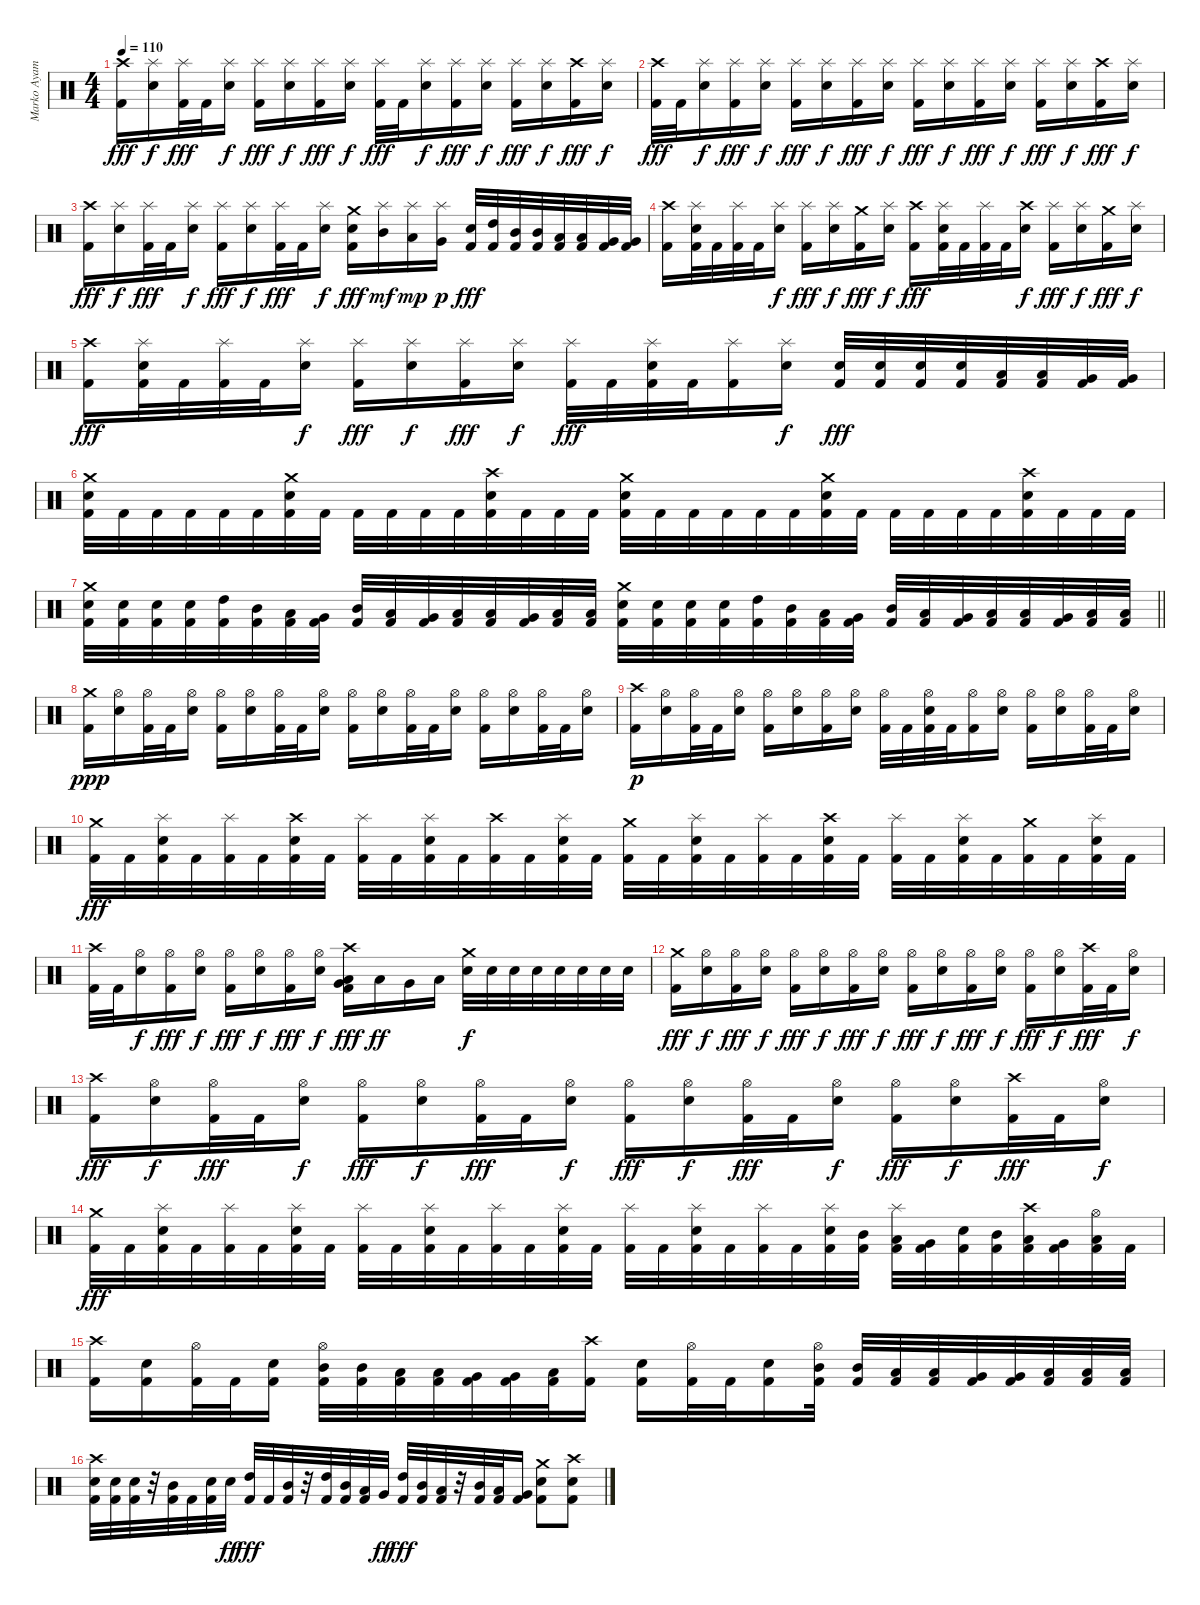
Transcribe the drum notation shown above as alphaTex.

\track ("Marko Ayamani" "Marko Ayam") {instrument percussion}
\staff {score}
\articulation defaults
\ts (4 4)
\tempo 110
\clef neutral
\ks c
("Crash high (hit)" "Kick (hit) 2").16{dy fff} ("Splash (hit)" "Snare (hit) 2").16{dy f} ("Splash (hit)" "Kick (hit) 2").32{dy fff} "Kick (hit) 2".32 ("Splash (hit)" "Snare (hit) 2").16{dy f} ("Splash (hit)" "Kick (hit) 2").16{dy fff} ("Splash (hit)" "Snare (hit) 2").16{dy f} ("Splash (hit)" "Kick (hit) 2").16{dy fff} ("Splash (hit)" "Snare (hit) 2").16{dy f} ("Splash (hit)" "Kick (hit) 2").32{dy fff} "Kick (hit) 2".32 ("Splash (hit)" "Snare (hit) 2").16{dy f} ("Splash (hit)" "Kick (hit) 2").16{dy fff} ("Splash (hit)" "Snare (hit) 2").16{dy f} ("Splash (hit)" "Kick (hit) 2").16{dy fff} ("Splash (hit)" "Snare (hit) 2").16{dy f} ("Crash high (hit)" "Kick (hit) 2").16{dy fff} ("Splash (hit)" "Snare (hit) 2").16{dy f} |
("Crash high (hit)" "Kick (hit) 2").32{dy fff} "Kick (hit) 2".32 ("Splash (hit)" "Snare (hit) 2").16{dy f} ("Splash (hit)" "Kick (hit) 2").16{dy fff} ("Splash (hit)" "Snare (hit) 2").16{dy f} ("Splash (hit)" "Kick (hit) 2").16{dy fff} ("Splash (hit)" "Snare (hit) 2").16{dy f} ("Splash (hit)" "Kick (hit) 2").16{dy fff} ("Splash (hit)" "Snare (hit) 2").16{dy f} ("Splash (hit)" "Kick (hit) 2").16{dy fff} ("Splash (hit)" "Snare (hit) 2").16{dy f} ("Splash (hit)" "Kick (hit) 2").16{dy fff} ("Splash (hit)" "Snare (hit) 2").16{dy f} ("Splash (hit)" "Kick (hit) 2").16{dy fff} ("Splash (hit)" "Snare (hit) 2").16{dy f} ("Crash high (hit)" "Kick (hit) 2").16{dy fff} ("Splash (hit)" "Snare (hit) 2").16{dy f} |
("Crash high (hit)" "Kick (hit) 2").16{dy fff} ("Splash (hit)" "Snare (hit) 2").16{dy f} ("Splash (hit)" "Kick (hit) 2").32{dy fff} "Kick (hit) 2".32 ("Splash (hit)" "Snare (hit) 2").16{dy f} ("Splash (hit)" "Kick (hit) 2").16{dy fff} ("Splash (hit)" "Snare (hit) 2").16{dy f} ("Splash (hit)" "Kick (hit) 2").32{dy fff} "Kick (hit) 2".32 ("Splash (hit)" "Snare (hit) 2").16{dy f} ("Crash medium (hit)" "Snare (hit) 2" "Kick (hit) 2").16{dy fff} ("Splash (hit)" "Mid Tom (hit)").16{dy mf} ("Splash (hit)" "Low Tom (hit)").16{dy mp} ("Splash (hit)" "Very Low Tom (hit)").16{dy p} ("Snare (hit) 2" "Kick (hit) 2").32{dy fff} ("High Tom (hit)" "Kick (hit) 2").32 ("Mid Tom (hit)" "Kick (hit) 2").32 ("Mid Tom (hit)" "Kick (hit) 2").32 ("Low Tom (hit)" "Kick (hit) 2").32 ("Low Tom (hit)" "Kick (hit) 2").32 ("Very Low Tom (hit)" "Kick (hit) 2").32 ("Very Low Tom (hit)" "Kick (hit) 2").32 |
("Crash high (hit)" "Kick (hit) 2").16 ("Splash (hit)" "Snare (hit) 2" "Kick (hit) 2").32 "Kick (hit) 2".32 ("Splash (hit)" "Kick (hit) 2").32 "Kick (hit) 2".32 ("Splash (hit)" "Snare (hit) 2").16{dy f} ("Splash (hit)" "Kick (hit) 2").16{dy fff} ("Splash (hit)" "Snare (hit) 2").16{dy f} ("Crash medium (hit)" "Kick (hit) 2").16{dy fff} ("Splash (hit)" "Snare (hit) 2").16{dy f} ("Crash high (hit)" "Kick (hit) 2").16{dy fff} ("Splash (hit)" "Snare (hit) 2" "Kick (hit) 2").32 "Kick (hit) 2".32 ("Splash (hit)" "Kick (hit) 2").32 "Kick (hit) 2".32 ("Crash high (hit)" "Snare (hit) 2").16{dy f} ("Splash (hit)" "Kick (hit) 2").16{dy fff} ("Splash (hit)" "Snare (hit) 2").16{dy f} ("Crash medium (hit)" "Kick (hit) 2").16{dy fff} ("Splash (hit)" "Snare (hit) 2").16{dy f} |
("Crash high (hit)" "Kick (hit) 2").16{dy fff} ("Splash (hit)" "Snare (hit) 2" "Kick (hit) 2").32 "Kick (hit) 2".32 ("Splash (hit)" "Kick (hit) 2").32 "Kick (hit) 2".32 ("Splash (hit)" "Snare (hit) 2").16{dy f} ("Splash (hit)" "Kick (hit) 2").16{dy fff} ("Splash (hit)" "Snare (hit) 2").16{dy f} ("Splash (hit)" "Kick (hit) 2").16{dy fff} ("Splash (hit)" "Snare (hit) 2").16{dy f} ("Splash (hit)" "Kick (hit) 2").32{dy fff} "Kick (hit) 2".32 ("Splash (hit)" "Snare (hit) 2" "Kick (hit) 2").32 "Kick (hit) 2".32 ("Splash (hit)" "Kick (hit) 2").16 ("Splash (hit)" "Snare (hit) 2").16{dy f} ("Snare (hit) 2" "Kick (hit) 2").32{dy fff} ("Snare (hit) 2" "Kick (hit) 2").32 ("Snare (hit) 2" "Kick (hit) 2").32 ("Snare (hit) 2" "Kick (hit) 2").32 ("Low Tom (hit)" "Kick (hit) 2").32 ("Low Tom (hit)" "Kick (hit) 2").32 ("Very Low Tom (hit)" "Kick (hit) 2").32 ("Very Low Tom (hit)" "Kick (hit) 2").32 |
("Crash medium (hit)" "Snare (hit) 2" "Kick (hit) 2").32 "Kick (hit) 2".32 "Kick (hit) 2".32 "Kick (hit) 2".32 "Kick (hit) 2".32 "Kick (hit) 2".32 ("Crash medium (hit)" "Snare (hit) 2" "Kick (hit) 2").32 "Kick (hit) 2".32 "Kick (hit) 2".32 "Kick (hit) 2".32 "Kick (hit) 2".32 "Kick (hit) 2".32 ("Crash high (hit)" "Snare (hit) 2" "Kick (hit) 2").32 "Kick (hit) 2".32 "Kick (hit) 2".32 "Kick (hit) 2".32 ("Crash medium (hit)" "Snare (hit) 2" "Kick (hit) 2").32 "Kick (hit) 2".32 "Kick (hit) 2".32 "Kick (hit) 2".32 "Kick (hit) 2".32 "Kick (hit) 2".32 ("Crash medium (hit)" "Snare (hit) 2" "Kick (hit) 2").32 "Kick (hit) 2".32 "Kick (hit) 2".32 "Kick (hit) 2".32 "Kick (hit) 2".32 "Kick (hit) 2".32 ("Crash high (hit)" "Snare (hit) 2" "Kick (hit) 2").32 "Kick (hit) 2".32 "Kick (hit) 2".32 "Kick (hit) 2".32 |
\barLineRight lightlight
("Crash medium (hit)" "Snare (hit) 2" "Kick (hit) 2").32 ("Snare (hit) 2" "Kick (hit) 2").32 ("Snare (hit) 2" "Kick (hit) 2").32 ("Snare (hit) 2" "Kick (hit) 2").32 ("High Tom (hit)" "Kick (hit) 2").32 ("Mid Tom (hit)" "Kick (hit) 2").32 ("Low Tom (hit)" "Kick (hit) 2").32 ("Very Low Tom (hit)" "Kick (hit) 2").32 ("Mid Tom (hit)" "Kick (hit) 2").32 ("Low Tom (hit)" "Kick (hit) 2").32 ("Very Low Tom (hit)" "Kick (hit) 2").32 ("Low Floor Tom (hit)" "Kick (hit) 2").32 ("Low Tom (hit)" "Kick (hit) 2").32 ("Very Low Tom (hit)" "Kick (hit) 2").32 ("Low Floor Tom (hit)" "Kick (hit) 2").32 ("Low Floor Tom (hit)" "Kick (hit) 2").32 ("Crash medium (hit)" "Snare (hit) 2" "Kick (hit) 2").32 ("Snare (hit) 2" "Kick (hit) 2").32 ("Snare (hit) 2" "Kick (hit) 2").32 ("Snare (hit) 2" "Kick (hit) 2").32 ("High Tom (hit)" "Kick (hit) 2").32 ("Mid Tom (hit)" "Kick (hit) 2").32 ("Low Tom (hit)" "Kick (hit) 2").32 ("Very Low Tom (hit)" "Kick (hit) 2").32 ("Mid Tom (hit)" "Kick (hit) 2").32 ("Low Tom (hit)" "Kick (hit) 2").32 ("Very Low Tom (hit)" "Kick (hit) 2").32 ("Low Floor Tom (hit)" "Kick (hit) 2").32 ("Low Tom (hit)" "Kick (hit) 2").32 ("Very Low Tom (hit)" "Kick (hit) 2").32 ("Low Floor Tom (hit)" "Kick (hit) 2").32 ("Low Floor Tom (hit)" "Kick (hit) 2").32 |
("Crash medium (hit)" "Kick (hit) 2").16{dy ppp} ("Hi-Hat (open)" "Snare (hit) 2").16 ("Hi-Hat (open)" "Kick (hit) 2").32 "Kick (hit) 2".32 ("Hi-Hat (open)" "Snare (hit) 2").16 ("Hi-Hat (open)" "Kick (hit) 2").16 ("Hi-Hat (open)" "Snare (hit) 2").16 ("Hi-Hat (open)" "Kick (hit) 2").32 "Kick (hit) 2".32 ("Hi-Hat (open)" "Snare (hit) 2").16 ("Hi-Hat (open)" "Kick (hit) 2").16 ("Hi-Hat (open)" "Snare (hit) 2").16 ("Hi-Hat (open)" "Kick (hit) 2").32 "Kick (hit) 2".32 ("Hi-Hat (open)" "Snare (hit) 2").16 ("Hi-Hat (open)" "Kick (hit) 2").16 ("Hi-Hat (open)" "Snare (hit) 2").16 ("Hi-Hat (open)" "Kick (hit) 2").32 "Kick (hit) 2".32 ("Hi-Hat (open)" "Snare (hit) 2").16 |
("Crash high (hit)" "Kick (hit) 2").16{dy p} ("Hi-Hat (open)" "Snare (hit) 2").16 ("Hi-Hat (open)" "Kick (hit) 2").32 "Kick (hit) 2".32 ("Hi-Hat (open)" "Snare (hit) 2").16 ("Hi-Hat (open)" "Kick (hit) 2").16 ("Hi-Hat (open)" "Snare (hit) 2").16 ("Hi-Hat (open)" "Kick (hit) 2").16 ("Hi-Hat (open)" "Snare (hit) 2").16 ("Hi-Hat (open)" "Kick (hit) 2").32 "Kick (hit) 2".32 ("Hi-Hat (open)" "Snare (hit) 2" "Kick (hit) 2").32 "Kick (hit) 2".32 ("Hi-Hat (open)" "Kick (hit) 2").16 ("Hi-Hat (open)" "Snare (hit) 2").16 ("Hi-Hat (open)" "Kick (hit) 2").16 ("Hi-Hat (open)" "Snare (hit) 2").16 ("Hi-Hat (open)" "Kick (hit) 2").32 "Kick (hit) 2".32 ("Hi-Hat (open)" "Snare (hit) 2").16 |
("Crash medium (hit)" "Kick (hit) 2").32{dy fff} "Kick (hit) 2".32 ("Splash (hit)" "Snare (hit) 2" "Kick (hit) 2").32 "Kick (hit) 2".32 ("Splash (hit)" "Kick (hit) 2").32 "Kick (hit) 2".32 ("Crash high (hit)" "Snare (hit) 2" "Kick (hit) 2").32 "Kick (hit) 2".32 ("Splash (hit)" "Kick (hit) 2").32 "Kick (hit) 2".32 ("Splash (hit)" "Snare (hit) 2" "Kick (hit) 2").32 "Kick (hit) 2".32 ("Crash high (hit)" "Kick (hit) 2").32 "Kick (hit) 2".32 ("Splash (hit)" "Snare (hit) 2" "Kick (hit) 2").32 "Kick (hit) 2".32 ("Crash medium (hit)" "Kick (hit) 2").32 "Kick (hit) 2".32 ("Splash (hit)" "Snare (hit) 2" "Kick (hit) 2").32 "Kick (hit) 2".32 ("Splash (hit)" "Kick (hit) 2").32 "Kick (hit) 2".32 ("Crash high (hit)" "Snare (hit) 2" "Kick (hit) 2").32 "Kick (hit) 2".32 ("Splash (hit)" "Kick (hit) 2").32 "Kick (hit) 2".32 ("Splash (hit)" "Snare (hit) 2" "Kick (hit) 2").32 "Kick (hit) 2".32 ("Crash medium (hit)" "Kick (hit) 2").32 "Kick (hit) 2".32 ("Splash (hit)" "Snare (hit) 2" "Kick (hit) 2").32 "Kick (hit) 2".32 |
("Crash high (hit)" "Kick (hit) 2").32 "Kick (hit) 2".32 ("Hi-Hat (open)" "Snare (hit) 2").16{dy f} ("Hi-Hat (open)" "Kick (hit) 2").16{dy fff} ("Hi-Hat (open)" "Snare (hit) 2").16{dy f} ("Hi-Hat (open)" "Kick (hit) 2").16{dy fff} ("Hi-Hat (open)" "Snare (hit) 2").16{dy f} ("Hi-Hat (open)" "Kick (hit) 2").16{dy fff} ("Hi-Hat (open)" "Snare (hit) 2").16{dy f} ("Crash high (hit)" "Very Low Tom (hit)" "Low Tom (hit)" "Kick (hit) 2").16{dy fff} "Low Tom (hit)".16{dy ff} "Very Low Tom (hit)".16 "Low Floor Tom (hit)".16 ("Crash medium (hit)" "Snare (hit) 2").32{dy f} "Snare (hit) 2".32 "Snare (hit) 2".32 "Snare (hit) 2".32 "Snare (hit) 2".32 "Snare (hit) 2".32 "Snare (hit) 2".32 "Snare (hit) 2".32 |
("Crash medium (hit)" "Kick (hit) 2").16{dy fff} ("Hi-Hat (open)" "Snare (hit) 2").16{dy f} ("Hi-Hat (open)" "Kick (hit) 2").16{dy fff} ("Hi-Hat (open)" "Snare (hit) 2").16{dy f} ("Hi-Hat (open)" "Kick (hit) 2").16{dy fff} ("Hi-Hat (open)" "Snare (hit) 2").16{dy f} ("Hi-Hat (open)" "Kick (hit) 2").16{dy fff} ("Hi-Hat (open)" "Snare (hit) 2").16{dy f} ("Hi-Hat (open)" "Kick (hit) 2").16{dy fff} ("Hi-Hat (open)" "Snare (hit) 2").16{dy f} ("Hi-Hat (open)" "Kick (hit) 2").16{dy fff} ("Hi-Hat (open)" "Snare (hit) 2").16{dy f} ("Hi-Hat (open)" "Kick (hit) 2").16{dy fff} ("Hi-Hat (open)" "Snare (hit) 2").16{dy f} ("Crash high (hit)" "Kick (hit) 2").32{dy fff} "Kick (hit) 2".32 ("Hi-Hat (open)" "Snare (hit) 2").16{dy f} |
("Crash high (hit)" "Kick (hit) 2").16{dy fff} ("Hi-Hat (open)" "Snare (hit) 2").16{dy f} ("Hi-Hat (open)" "Kick (hit) 2").32{dy fff} "Kick (hit) 2".32 ("Hi-Hat (open)" "Snare (hit) 2").16{dy f} ("Hi-Hat (open)" "Kick (hit) 2").16{dy fff} ("Hi-Hat (open)" "Snare (hit) 2").16{dy f} ("Hi-Hat (open)" "Kick (hit) 2").32{dy fff} "Kick (hit) 2".32 ("Hi-Hat (open)" "Snare (hit) 2").16{dy f} ("Hi-Hat (open)" "Kick (hit) 2").16{dy fff} ("Hi-Hat (open)" "Snare (hit) 2").16{dy f} ("Hi-Hat (open)" "Kick (hit) 2").32{dy fff} "Kick (hit) 2".32 ("Hi-Hat (open)" "Snare (hit) 2").16{dy f} ("Hi-Hat (open)" "Kick (hit) 2").16{dy fff} ("Hi-Hat (open)" "Snare (hit) 2").16{dy f} ("Crash high (hit)" "Kick (hit) 2").32{dy fff} "Kick (hit) 2".32 ("Hi-Hat (open)" "Snare (hit) 2").16{dy f} |
("Crash medium (hit)" "Kick (hit) 2").32{dy fff} "Kick (hit) 2".32 ("Splash (hit)" "Snare (hit) 2" "Kick (hit) 2").32 "Kick (hit) 2".32 ("Splash (hit)" "Kick (hit) 2").32 "Kick (hit) 2".32 ("Splash (hit)" "Snare (hit) 2" "Kick (hit) 2").32 "Kick (hit) 2".32 ("Splash (hit)" "Kick (hit) 2").32 "Kick (hit) 2".32 ("Splash (hit)" "Snare (hit) 2" "Kick (hit) 2").32 "Kick (hit) 2".32 ("Splash (hit)" "Kick (hit) 2").32 "Kick (hit) 2".32 ("Splash (hit)" "Snare (hit) 2" "Kick (hit) 2").32 "Kick (hit) 2".32 ("Splash (hit)" "Kick (hit) 2").32 "Kick (hit) 2".32 ("Splash (hit)" "Snare (hit) 2" "Kick (hit) 2").32 "Kick (hit) 2".32 ("Splash (hit)" "Kick (hit) 2").32 "Kick (hit) 2".32 ("Splash (hit)" "Snare (hit) 2" "Kick (hit) 2").32 ("Mid Tom (hit)" "Kick (hit) 2").32 ("Splash (hit)" "Low Tom (hit)" "Kick (hit) 2").32 ("Very Low Tom (hit)" "Kick (hit) 2").32 ("Snare (hit) 2" "Kick (hit) 2").32 ("Mid Tom (hit)" "Kick (hit) 2").32 ("Crash high (hit)" "Low Tom (hit)" "Kick (hit) 2").32 ("Very Low Tom (hit)" "Kick (hit) 2").32 ("Hi-Hat (open)" "Low Floor Tom (hit)" "Kick (hit) 2").32 "Kick (hit) 2".32 |
("Crash high (hit)" "Kick (hit) 2").16 ("Snare (hit) 2" "Kick (hit) 2").16 ("Hi-Hat (open)" "Kick (hit) 2").32 "Kick (hit) 2".32 ("Snare (hit) 2" "Kick (hit) 2").16 ("Hi-Hat (open)" "Mid Tom (hit)" "Kick (hit) 2").32 ("Mid Tom (hit)" "Kick (hit) 2").32 ("Low Tom (hit)" "Kick (hit) 2").32 ("Low Tom (hit)" "Kick (hit) 2").32 ("Very Low Tom (hit)" "Kick (hit) 2").32 ("Very Low Tom (hit)" "Kick (hit) 2").32 ("Low Floor Tom (hit)" "Kick (hit) 2").32 ("Crash high (hit)" "Kick (hit) 2").16 ("Snare (hit) 2" "Kick (hit) 2").16 ("Hi-Hat (open)" "Kick (hit) 2").32 "Kick (hit) 2".32 ("Snare (hit) 2" "Kick (hit) 2").16 ("Hi-Hat (open)" "Mid Tom (hit)" "Kick (hit) 2").32 ("Mid Tom (hit)" "Kick (hit) 2").32 ("Low Tom (hit)" "Kick (hit) 2").32 ("Low Tom (hit)" "Kick (hit) 2").32 ("Very Low Tom (hit)" "Kick (hit) 2").32 ("Very Low Tom (hit)" "Kick (hit) 2").32 ("Low Floor Tom (hit)" "Kick (hit) 2").32 ("Low Floor Tom (hit)" "Kick (hit) 2").32 ("Low Floor Tom (hit)" "Kick (hit) 2").32 |
("Crash high (hit)" "Snare (hit) 2" "Kick (hit) 2").32 ("Snare (hit) 2" "Kick (hit) 2").32 ("Snare (hit) 2" "Kick (hit) 2").32 r.32 ("Mid Tom (hit)" "Kick (hit) 2").32 "Kick (hit) 2".32 ("Snare (hit) 2" "Kick (hit) 2").32 "Snare (hit) 2".32{dy ff} ("High Tom (hit)" "Kick (hit) 2").32{dy fff} "Kick (hit) 2".32 ("Mid Tom (hit)" "Kick (hit) 2").32 r.32 ("High Tom (hit)" "Kick (hit) 2").32 ("Mid Tom (hit)" "Kick (hit) 2").32 ("Low Tom (hit)" "Kick (hit) 2").32 "Very Low Tom (hit)".32{dy ff} ("High Tom (hit)" "Kick (hit) 2").32{dy fff} ("Mid Tom (hit)" "Kick (hit) 2").32 ("Low Tom (hit)" "Kick (hit) 2").32 r.32 ("Mid Tom (hit)" "Kick (hit) 2").32 ("Low Tom (hit)" "Kick (hit) 2").32 ("Very Low Tom (hit)" "Kick (hit) 2").16 ("Crash medium (hit)" "Snare (hit) 2" "Kick (hit) 2").8 ("Crash high (hit)" "Snare (hit) 2" "Kick (hit) 2").8
